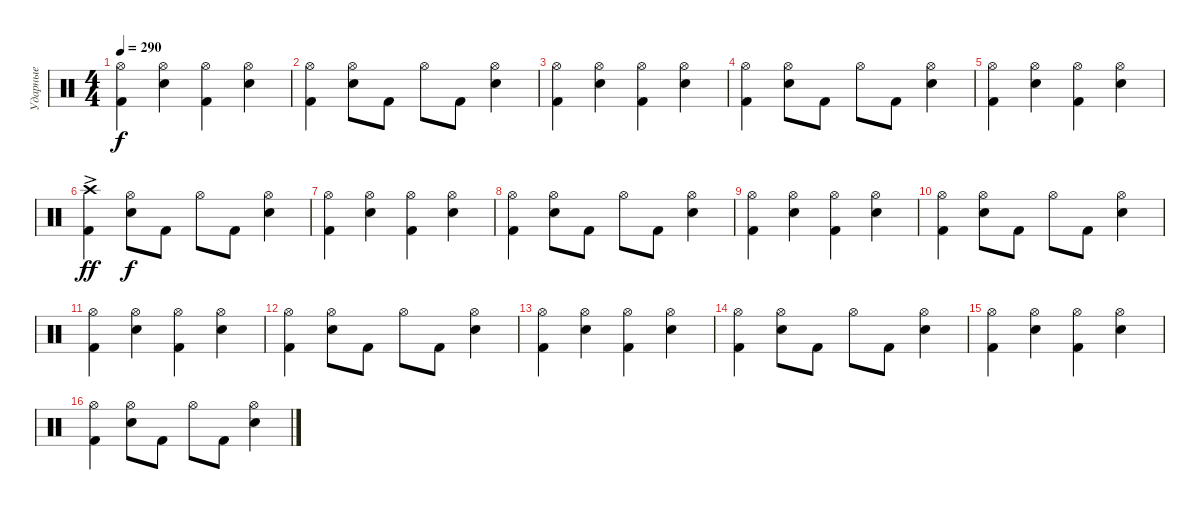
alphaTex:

\track ("Ударные" "Ударные") {instrument percussion}
\staff {score}
\articulation defaults
\ts (4 4)
\tempo 290
\clef neutral
\ks c
("Kick (hit) 2" "Hi-Hat (open)").4{dy f} ("Snare (hit) 2" "Hi-Hat (open)").4 ("Kick (hit) 2" "Hi-Hat (open)").4 ("Snare (hit) 2" "Hi-Hat (open)").4 |
("Kick (hit) 2" "Hi-Hat (open)").4 ("Snare (hit) 2" "Hi-Hat (open)").8 "Kick (hit) 2".8 "Hi-Hat (open)".8 "Kick (hit) 2".8 ("Snare (hit) 2" "Hi-Hat (open)").4 |
("Kick (hit) 2" "Hi-Hat (open)").4 ("Snare (hit) 2" "Hi-Hat (open)").4 ("Kick (hit) 2" "Hi-Hat (open)").4 ("Snare (hit) 2" "Hi-Hat (open)").4 |
("Kick (hit) 2" "Hi-Hat (open)").4 ("Snare (hit) 2" "Hi-Hat (open)").8 "Kick (hit) 2".8 "Hi-Hat (open)".8 "Kick (hit) 2".8 ("Snare (hit) 2" "Hi-Hat (open)").4 |
("Kick (hit) 2" "Hi-Hat (open)").4 ("Snare (hit) 2" "Hi-Hat (open)").4 ("Kick (hit) 2" "Hi-Hat (open)").4 ("Snare (hit) 2" "Hi-Hat (open)").4 |
("Kick (hit) 2" "Crash high (hit)"{ac}).4{dy ff} ("Snare (hit) 2" "Hi-Hat (open)").8{dy f} "Kick (hit) 2".8 "Hi-Hat (open)".8 "Kick (hit) 2".8 ("Snare (hit) 2" "Hi-Hat (open)").4 |
("Kick (hit) 2" "Hi-Hat (open)").4 ("Snare (hit) 2" "Hi-Hat (open)").4 ("Kick (hit) 2" "Hi-Hat (open)").4 ("Snare (hit) 2" "Hi-Hat (open)").4 |
("Kick (hit) 2" "Hi-Hat (open)").4 ("Snare (hit) 2" "Hi-Hat (open)").8 "Kick (hit) 2".8 "Hi-Hat (open)".8 "Kick (hit) 2".8 ("Snare (hit) 2" "Hi-Hat (open)").4 |
("Kick (hit) 2" "Hi-Hat (open)").4 ("Snare (hit) 2" "Hi-Hat (open)").4 ("Kick (hit) 2" "Hi-Hat (open)").4 ("Snare (hit) 2" "Hi-Hat (open)").4 |
("Kick (hit) 2" "Hi-Hat (open)").4 ("Snare (hit) 2" "Hi-Hat (open)").8 "Kick (hit) 2".8 "Hi-Hat (open)".8 "Kick (hit) 2".8 ("Snare (hit) 2" "Hi-Hat (open)").4 |
("Kick (hit) 2" "Hi-Hat (open)").4 ("Snare (hit) 2" "Hi-Hat (open)").4 ("Kick (hit) 2" "Hi-Hat (open)").4 ("Snare (hit) 2" "Hi-Hat (open)").4 |
("Kick (hit) 2" "Hi-Hat (open)").4 ("Snare (hit) 2" "Hi-Hat (open)").8 "Kick (hit) 2".8 "Hi-Hat (open)".8 "Kick (hit) 2".8 ("Snare (hit) 2" "Hi-Hat (open)").4 |
("Kick (hit) 2" "Hi-Hat (open)").4 ("Snare (hit) 2" "Hi-Hat (open)").4 ("Kick (hit) 2" "Hi-Hat (open)").4 ("Snare (hit) 2" "Hi-Hat (open)").4 |
("Kick (hit) 2" "Hi-Hat (open)").4 ("Snare (hit) 2" "Hi-Hat (open)").8 "Kick (hit) 2".8 "Hi-Hat (open)".8 "Kick (hit) 2".8 ("Snare (hit) 2" "Hi-Hat (open)").4 |
("Kick (hit) 2" "Hi-Hat (open)").4 ("Snare (hit) 2" "Hi-Hat (open)").4 ("Kick (hit) 2" "Hi-Hat (open)").4 ("Snare (hit) 2" "Hi-Hat (open)").4 |
("Kick (hit) 2" "Hi-Hat (open)").4 ("Snare (hit) 2" "Hi-Hat (open)").8 "Kick (hit) 2".8 "Hi-Hat (open)".8 "Kick (hit) 2".8 ("Snare (hit) 2" "Hi-Hat (open)").4
